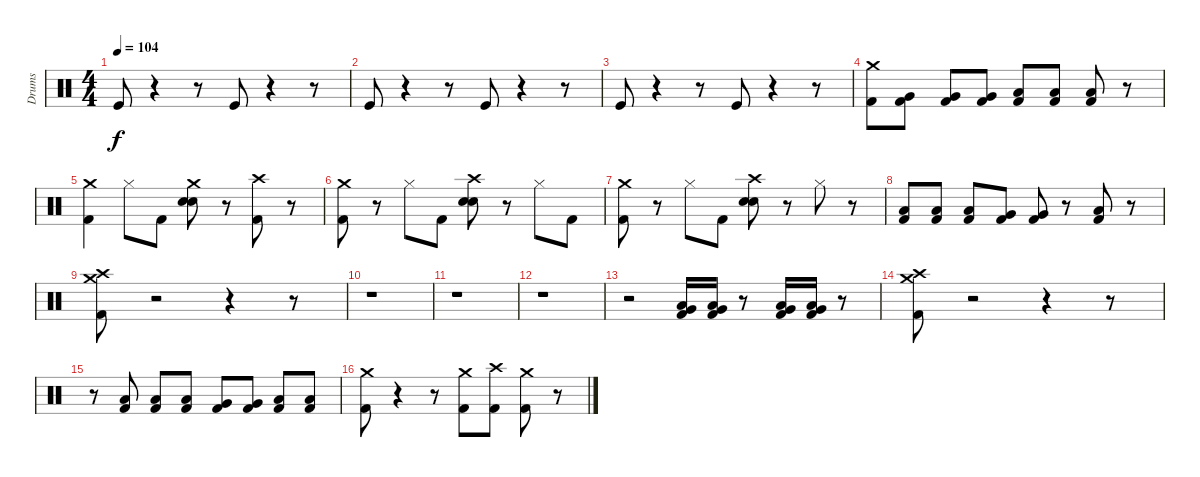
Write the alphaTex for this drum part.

\track ("Drums" "Drums") {instrument percussion}
\staff {score}
\articulation defaults
\ts (4 4)
\tempo 104
\clef neutral
\ks c "Kick (hit)".8{dy f}
r.4 r.8 "Kick (hit)".8 r.4 r.8 |
"Kick (hit)".8 r.4 r.8 "Kick (hit)".8 r.4 r.8 |
"Kick (hit)".8 r.4 r.8 "Kick (hit)".8 r.4 r.8 |
("Crash medium (hit)" "Kick (hit) 2").8 ("Very Low Tom (hit)" "Kick (hit) 2").8 ("Very Low Tom (hit)" "Kick (hit) 2").8 ("Very Low Tom (hit)" "Kick (hit) 2").8 ("Low Floor Tom (hit)" "Kick (hit) 2").8 ("Low Floor Tom (hit)" "Kick (hit) 2").8 ("Low Floor Tom (hit)" "Kick (hit) 2").8 r.8 |
("Crash medium (hit)" "Kick (hit) 2").4 "Hi-Hat (closed)".8 "Kick (hit) 2".8 ("Crash medium (hit)" "Electric Snare (hit)" "Snare (hit) 2").8 r.8 ("Crash high (hit)" "Kick (hit) 2").8 r.8 |
("Crash medium (hit)" "Kick (hit) 2").8 r.8 "Hi-Hat (closed)".8 "Kick (hit) 2".8 ("Crash high (hit)" "Electric Snare (hit)" "Snare (hit) 2").8 r.8 "Hi-Hat (closed)".8 "Kick (hit) 2".8 |
("Crash medium (hit)" "Kick (hit) 2").8 r.8 "Hi-Hat (closed)".8 "Kick (hit) 2".8 ("Crash high (hit)" "Electric Snare (hit)" "Snare (hit) 2").8 r.8 "Hi-Hat (closed)".8 r.8 |
("Low Tom (hit)" "Kick (hit) 2").8 ("Low Tom (hit)" "Kick (hit) 2").8 ("Low Tom (hit)" "Kick (hit) 2").8 ("Very Low Tom (hit)" "Kick (hit) 2").8 ("Very Low Tom (hit)" "Kick (hit) 2").8 r.8 ("Low Floor Tom (hit)" "Kick (hit) 2").8 r.8 |
("Crash high (hit)" "Crash medium (hit)" "Kick (hit) 2").8 r.2 r.4 r.8 |
r.1 |
r.1 |
r.1 |
r.2 ("Kick (hit) 2" "Low Tom (hit)" "Very Low Tom (hit)").16 ("Kick (hit) 2" "Very Low Tom (hit)" "Low Floor Tom (hit)").16 r.8 ("Low Tom (hit)" "Very Low Tom (hit)" "Kick (hit) 2").16 ("Very Low Tom (hit)" "Low Floor Tom (hit)" "Kick (hit) 2").16 r.8 |
("Crash high (hit)" "Crash medium (hit)" "Kick (hit) 2").8 r.2 r.4 r.8 |
r.8 ("Low Tom (hit)" "Kick (hit) 2").8 ("Low Tom (hit)" "Kick (hit) 2").8 ("Low Tom (hit)" "Kick (hit) 2").8 ("Very Low Tom (hit)" "Kick (hit) 2").8 ("Very Low Tom (hit)" "Kick (hit) 2").8 ("Low Floor Tom (hit)" "Kick (hit) 2").8 ("Low Floor Tom (hit)" "Kick (hit) 2").8 |
("Crash medium (hit)" "Kick (hit) 2").8 r.4 r.8 ("Crash medium (hit)" "Kick (hit) 2").8 ("Crash high (hit)" "Kick (hit) 2").8 ("Crash medium (hit)" "Kick (hit) 2").8 r.8
